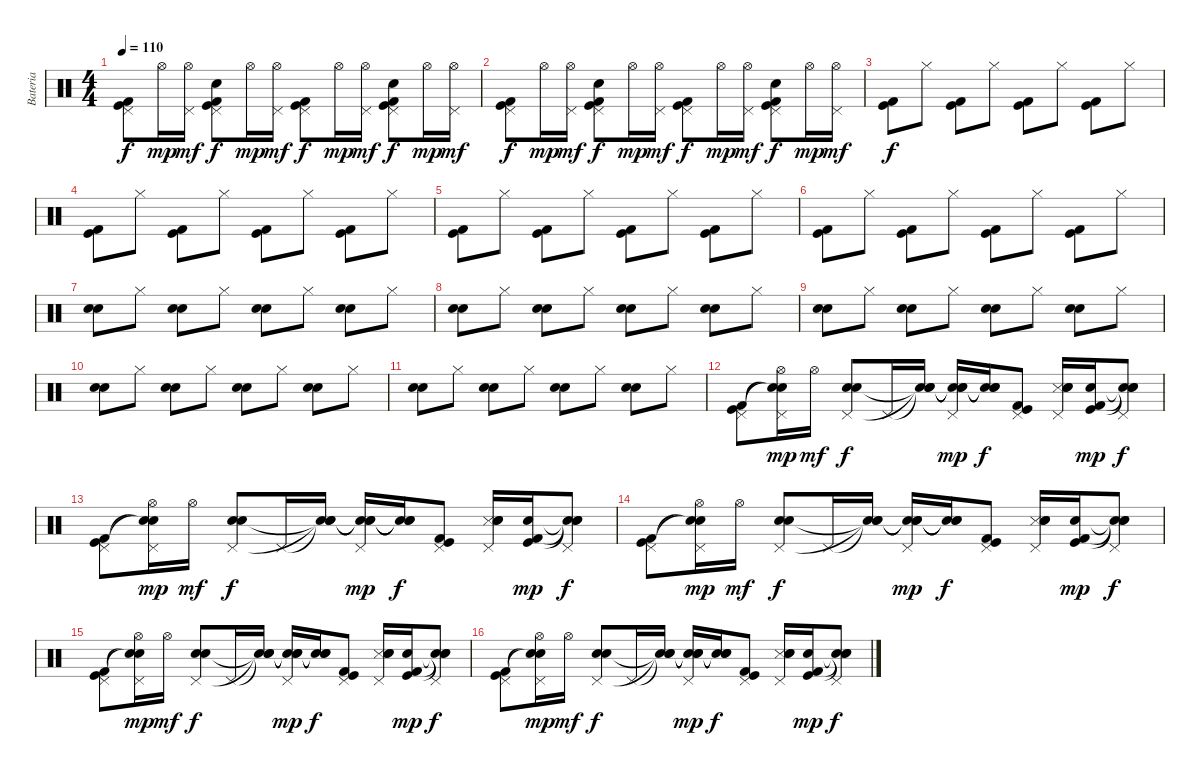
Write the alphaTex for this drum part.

\track ("Bateria" "Bateria") {instrument percussion}
\staff {score}
\articulation defaults
\ts (4 4)
\tempo 110
\clef neutral
\ks c
("Kick (hit)" "Kick (hit) 2" "Pedal Hi-Hat (hit)").8{dy f} "Hi-Hat (open)".16{dy mp} ("Hi-Hat (open)" "Pedal Hi-Hat (hit)").16{dy mf} ("Kick (hit) 2" "Kick (hit)" "Electric Snare (hit)" "Pedal Hi-Hat (hit)").8{dy f} "Hi-Hat (open)".16{dy mp} ("Hi-Hat (open)" "Pedal Hi-Hat (hit)").16{dy mf} ("Kick (hit) 2" "Kick (hit)" "Pedal Hi-Hat (hit)").8{dy f} "Hi-Hat (open)".16{dy mp} ("Hi-Hat (open)" "Pedal Hi-Hat (hit)").16{dy mf} ("Kick (hit) 2" "Kick (hit)" "Electric Snare (hit)" "Pedal Hi-Hat (hit)").8{dy f} "Hi-Hat (open)".16{dy mp} ("Hi-Hat (open)" "Pedal Hi-Hat (hit)").16{dy mf} |
("Kick (hit)" "Kick (hit) 2" "Pedal Hi-Hat (hit)").8{dy f} "Hi-Hat (open)".16{dy mp} ("Hi-Hat (open)" "Pedal Hi-Hat (hit)").16{dy mf} ("Kick (hit) 2" "Kick (hit)" "Electric Snare (hit)" "Pedal Hi-Hat (hit)").8{dy f} "Hi-Hat (open)".16{dy mp} ("Hi-Hat (open)" "Pedal Hi-Hat (hit)").16{dy mf} ("Kick (hit) 2" "Kick (hit)" "Pedal Hi-Hat (hit)").8{dy f} "Hi-Hat (open)".16{dy mp} ("Hi-Hat (open)" "Pedal Hi-Hat (hit)").16{dy mf} ("Kick (hit) 2" "Kick (hit)" "Electric Snare (hit)" "Pedal Hi-Hat (hit)").8{dy f} "Hi-Hat (open)".16{dy mp} ("Hi-Hat (open)" "Pedal Hi-Hat (hit)").16{dy mf} |
("Kick (hit)" "Kick (hit) 2").8{dy f} "Hi-Hat (closed)".8 ("Kick (hit) 2" "Kick (hit)").8 "Hi-Hat (closed)".8 ("Kick (hit) 2" "Kick (hit)").8 "Hi-Hat (closed)".8 ("Kick (hit) 2" "Kick (hit)").8 "Hi-Hat (closed)".8 |
("Kick (hit)" "Kick (hit) 2").8 "Hi-Hat (closed)".8 ("Kick (hit) 2" "Kick (hit)").8 "Hi-Hat (closed)".8 ("Kick (hit) 2" "Kick (hit)").8 "Hi-Hat (closed)".8 ("Kick (hit) 2" "Kick (hit)").8 "Hi-Hat (closed)".8 |
("Kick (hit)" "Kick (hit) 2").8 "Hi-Hat (closed)".8 ("Kick (hit) 2" "Kick (hit)").8 "Hi-Hat (closed)".8 ("Kick (hit) 2" "Kick (hit)").8 "Hi-Hat (closed)".8 ("Kick (hit) 2" "Kick (hit)").8 "Hi-Hat (closed)".8 |
("Kick (hit)" "Kick (hit) 2").8 "Hi-Hat (closed)".8 ("Kick (hit) 2" "Kick (hit)").8 "Hi-Hat (closed)".8 ("Kick (hit) 2" "Kick (hit)").8 "Hi-Hat (closed)".8 ("Kick (hit) 2" "Kick (hit)").8 "Hi-Hat (closed)".8 |
("Electric Snare (hit)" "Snare (hit) 2").8 "Hi-Hat (closed)".8 ("Electric Snare (hit)" "Snare (hit) 2").8 "Hi-Hat (closed)".8 ("Electric Snare (hit)" "Snare (hit) 2").8 "Hi-Hat (closed)".8 ("Electric Snare (hit)" "Snare (hit) 2").8 "Hi-Hat (closed)".8 |
("Electric Snare (hit)" "Snare (hit) 2").8 "Hi-Hat (closed)".8 ("Electric Snare (hit)" "Snare (hit) 2").8 "Hi-Hat (closed)".8 ("Electric Snare (hit)" "Snare (hit) 2").8 "Hi-Hat (closed)".8 ("Electric Snare (hit)" "Snare (hit) 2").8 "Hi-Hat (closed)".8 |
("Electric Snare (hit)" "Snare (hit) 2").8 "Hi-Hat (closed)".8 ("Electric Snare (hit)" "Snare (hit) 2").8 "Hi-Hat (closed)".8 ("Electric Snare (hit)" "Snare (hit) 2").8 "Hi-Hat (closed)".8 ("Electric Snare (hit)" "Snare (hit) 2").8 "Hi-Hat (closed)".8 |
("Electric Snare (hit)" "Snare (hit) 2").8 "Hi-Hat (closed)".8 ("Electric Snare (hit)" "Snare (hit) 2").8 "Hi-Hat (closed)".8 ("Electric Snare (hit)" "Snare (hit) 2").8 "Hi-Hat (closed)".8 ("Electric Snare (hit)" "Snare (hit) 2").8 "Hi-Hat (closed)".8 |
("Electric Snare (hit)" "Snare (hit) 2").8 "Hi-Hat (closed)".8 ("Electric Snare (hit)" "Snare (hit) 2").8 "Hi-Hat (closed)".8 ("Electric Snare (hit)" "Snare (hit) 2").8 "Hi-Hat (closed)".8 ("Electric Snare (hit)" "Snare (hit) 2").8 "Hi-Hat (closed)".8 |
("Kick (hit)" "Kick (hit) 2" "Pedal Hi-Hat (hit)").8 ("Snare (hit)"{t} "Snare (hit)"{t} "Hi-Hat (open)" "Pedal Hi-Hat (hit)").16{dy mp} "Hi-Hat (open)".16{dy mf} ("Snare (hit) 2" "Electric Snare (hit)" "Pedal Hi-Hat (hit)").8{dy f} "Pedal Hi-Hat (hit)".16 ("Snare (hit)"{t} "Snare (hit)"{t} "Snare (hit)"{t}).16 ("Snare (hit)"{t} "Snare (hit)"{t} "Snare (hit)"{t} "Pedal Hi-Hat (hit)").16{dy mp} ("Snare (hit)"{t} "Snare (hit)"{t} "Snare (hit)"{t}).16{dy f} ("Kick (hit) 2" "Kick (hit)" "Pedal Hi-Hat (hit)").8 ("Snare (side stick) 3" "Electric Snare (hit)" "Snare (hit) 2" "Pedal Hi-Hat (hit)").16 ("Kick (hit) 2" "Snare (hit) 2" "Kick (hit)").16{dy mp} ("Snare (hit)"{t} "Snare (hit)"{t} "Snare (hit)"{t} "Pedal Hi-Hat (hit)").8{dy f} |
("Kick (hit)" "Kick (hit) 2" "Pedal Hi-Hat (hit)").8 ("Snare (hit)"{t} "Snare (hit)"{t} "Hi-Hat (open)" "Pedal Hi-Hat (hit)").16{dy mp} "Hi-Hat (open)".16{dy mf} ("Snare (hit) 2" "Electric Snare (hit)" "Pedal Hi-Hat (hit)").8{dy f} "Pedal Hi-Hat (hit)".16 ("Snare (hit)"{t} "Snare (hit)"{t} "Snare (hit)"{t}).16 ("Snare (hit)"{t} "Snare (hit)"{t} "Snare (hit)"{t} "Pedal Hi-Hat (hit)").16{dy mp} ("Snare (hit)"{t} "Snare (hit)"{t} "Snare (hit)"{t}).16{dy f} ("Kick (hit) 2" "Kick (hit)" "Pedal Hi-Hat (hit)").8 ("Snare (side stick) 3" "Snare (hit) 2" "Electric Snare (hit)" "Pedal Hi-Hat (hit)").16 ("Kick (hit) 2" "Snare (hit) 2" "Kick (hit)").16{dy mp} ("Snare (hit)"{t} "Snare (hit)"{t} "Snare (hit)"{t} "Pedal Hi-Hat (hit)").8{dy f} |
("Kick (hit)" "Kick (hit) 2" "Pedal Hi-Hat (hit)").8 ("Snare (hit)"{t} "Snare (hit)"{t} "Hi-Hat (open)" "Pedal Hi-Hat (hit)").16{dy mp} "Hi-Hat (open)".16{dy mf} ("Snare (hit) 2" "Electric Snare (hit)" "Pedal Hi-Hat (hit)").8{dy f} "Pedal Hi-Hat (hit)".16 ("Snare (hit)"{t} "Snare (hit)"{t} "Snare (hit)"{t}).16 ("Snare (hit)"{t} "Snare (hit)"{t} "Snare (hit)"{t} "Pedal Hi-Hat (hit)").16{dy mp} ("Snare (hit)"{t} "Snare (hit)"{t} "Snare (hit)"{t}).16{dy f} ("Kick (hit) 2" "Kick (hit)" "Pedal Hi-Hat (hit)").8 ("Snare (side stick) 3" "Electric Snare (hit)" "Snare (hit) 2" "Pedal Hi-Hat (hit)").16 ("Kick (hit) 2" "Snare (hit) 2" "Kick (hit)").16{dy mp} ("Snare (hit)"{t} "Snare (hit)"{t} "Snare (hit)"{t} "Pedal Hi-Hat (hit)").8{dy f} |
("Kick (hit)" "Kick (hit) 2" "Pedal Hi-Hat (hit)").8 ("Snare (hit)"{t} "Snare (hit)"{t} "Hi-Hat (open)" "Pedal Hi-Hat (hit)").16{dy mp} "Hi-Hat (open)".16{dy mf} ("Snare (hit) 2" "Electric Snare (hit)" "Pedal Hi-Hat (hit)").8{dy f} "Pedal Hi-Hat (hit)".16 ("Snare (hit)"{t} "Snare (hit)"{t} "Snare (hit)"{t}).16 ("Snare (hit)"{t} "Snare (hit)"{t} "Snare (hit)"{t} "Pedal Hi-Hat (hit)").16{dy mp} ("Snare (hit)"{t} "Snare (hit)"{t} "Snare (hit)"{t}).16{dy f} ("Kick (hit) 2" "Kick (hit)" "Pedal Hi-Hat (hit)").8 ("Snare (side stick) 3" "Electric Snare (hit)" "Snare (hit) 2" "Pedal Hi-Hat (hit)").16 ("Kick (hit) 2" "Snare (hit) 2" "Kick (hit)").16{dy mp} ("Snare (hit)"{t} "Snare (hit)"{t} "Snare (hit)"{t} "Pedal Hi-Hat (hit)").8{dy f} |
("Kick (hit)" "Kick (hit) 2" "Pedal Hi-Hat (hit)").8 ("Snare (hit)"{t} "Snare (hit)"{t} "Hi-Hat (open)" "Pedal Hi-Hat (hit)").16{dy mp} "Hi-Hat (open)".16{dy mf} ("Snare (hit) 2" "Electric Snare (hit)" "Pedal Hi-Hat (hit)").8{dy f} "Pedal Hi-Hat (hit)".16 ("Snare (hit)"{t} "Snare (hit)"{t} "Snare (hit)"{t}).16 ("Snare (hit)"{t} "Snare (hit)"{t} "Snare (hit)"{t} "Pedal Hi-Hat (hit)").16{dy mp} ("Snare (hit)"{t} "Snare (hit)"{t} "Snare (hit)"{t}).16{dy f} ("Kick (hit) 2" "Kick (hit)" "Pedal Hi-Hat (hit)").8 ("Snare (side stick) 3" "Electric Snare (hit)" "Snare (hit) 2" "Pedal Hi-Hat (hit)").16 ("Kick (hit) 2" "Snare (hit) 2" "Kick (hit)").16{dy mp} ("Snare (hit)"{t} "Snare (hit)"{t} "Snare (hit)"{t} "Pedal Hi-Hat (hit)").8{dy f}
